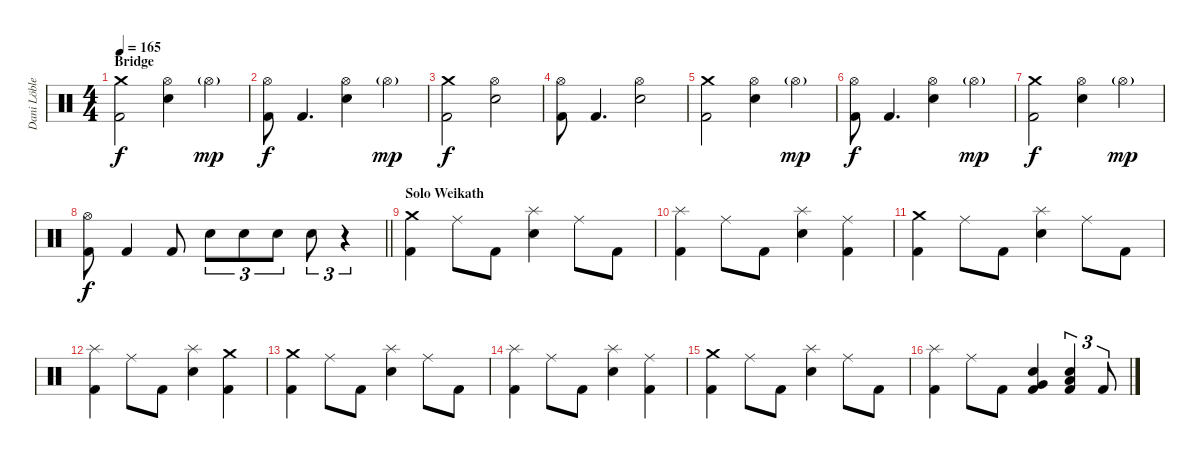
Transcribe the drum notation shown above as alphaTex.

\track ("Dani Löble" "Dani Löble") {instrument percussion}
\staff {score}
\articulation defaults
\ts (4 4)
\section ("" "Bridge")
\tempo 165
\clef neutral
\ks c
("Crash medium (hit)" "Kick (hit) 2").2{dy f} ("Hi-Hat (open)" "Electric Snare (hit)").4 "Hi-Hat (open)"{g}.4{dy mp} |
("Hi-Hat (open)" "Kick (hit) 2").8{dy f} "Kick (hit) 2".4{d} ("Hi-Hat (open)" "Electric Snare (hit)").4 "Hi-Hat (open)"{g}.4{dy mp} |
("Crash medium (hit)" "Kick (hit) 2").2{dy f} ("Hi-Hat (open)" "Electric Snare (hit)").2 |
("Hi-Hat (open)" "Kick (hit) 2").8 "Kick (hit) 2".4{d} ("Hi-Hat (open)" "Electric Snare (hit)").2 |
("Crash medium (hit)" "Kick (hit) 2").2 ("Hi-Hat (open)" "Electric Snare (hit)").4 "Hi-Hat (open)"{g}.4{dy mp} |
("Hi-Hat (open)" "Kick (hit) 2").8{dy f} "Kick (hit) 2".4{d} ("Hi-Hat (open)" "Electric Snare (hit)").4 "Hi-Hat (open)"{g}.4{dy mp} |
("Crash medium (hit)" "Kick (hit) 2").2{dy f} ("Hi-Hat (open)" "Electric Snare (hit)").4 "Hi-Hat (open)"{g}.4{dy mp} |
\barLineRight lightlight
("Hi-Hat (open)" "Kick (hit) 2").8{dy f} "Kick (hit) 2".4 "Kick (hit) 2".8 "Electric Snare (hit)".8{tu (3 2)} "Electric Snare (hit)".8{tu (3 2)} "Electric Snare (hit)".8{tu (3 2)} "Electric Snare (hit)".8{tu (3 2)} r.4{tu (3 2)} |
\section ("" "Solo Weikath")
("Crash medium (hit)" "Kick (hit) 2").4 "Ride (middle)".8 "Kick (hit) 2".8 ("Splash (hit)" "Electric Snare (hit)").4 "Ride (middle)".8 "Kick (hit) 2".8 |
("Splash (hit)" "Kick (hit) 2").4 "Ride (middle)".8 "Kick (hit) 2".8 ("Splash (hit)" "Electric Snare (hit)").4 ("Ride (middle)" "Kick (hit) 2").4 |
("Crash medium (hit)" "Kick (hit) 2").4 "Ride (middle)".8 "Kick (hit) 2".8 ("Splash (hit)" "Electric Snare (hit)").4 "Ride (middle)".8 "Kick (hit) 2".8 |
("Splash (hit)" "Kick (hit) 2").4 "Ride (middle)".8 "Kick (hit) 2".8 ("Splash (hit)" "Electric Snare (hit)").4 ("Crash medium (hit)" "Kick (hit) 2").4 |
("Crash medium (hit)" "Kick (hit) 2").4 "Ride (middle)".8 "Kick (hit) 2".8 ("Splash (hit)" "Electric Snare (hit)").4 "Ride (middle)".8 "Kick (hit) 2".8 |
("Splash (hit)" "Kick (hit) 2").4 "Ride (middle)".8 "Kick (hit) 2".8 ("Splash (hit)" "Electric Snare (hit)").4 ("Ride (middle)" "Kick (hit) 2").4 |
("Crash medium (hit)" "Kick (hit) 2").4 "Ride (middle)".8 "Kick (hit) 2".8 ("Splash (hit)" "Electric Snare (hit)").4 "Ride (middle)".8 "Kick (hit) 2".8 |
("Splash (hit)" "Kick (hit) 2").4 "Ride (middle)".8 "Kick (hit) 2".8 ("Electric Snare (hit)" "Very Low Tom (hit)" "Kick (hit) 2").4 ("Electric Snare (hit)" "Low Floor Tom (hit)" "Kick (hit) 2").4{tu (3 2)} "Kick (hit) 2".8{tu (3 2)}
